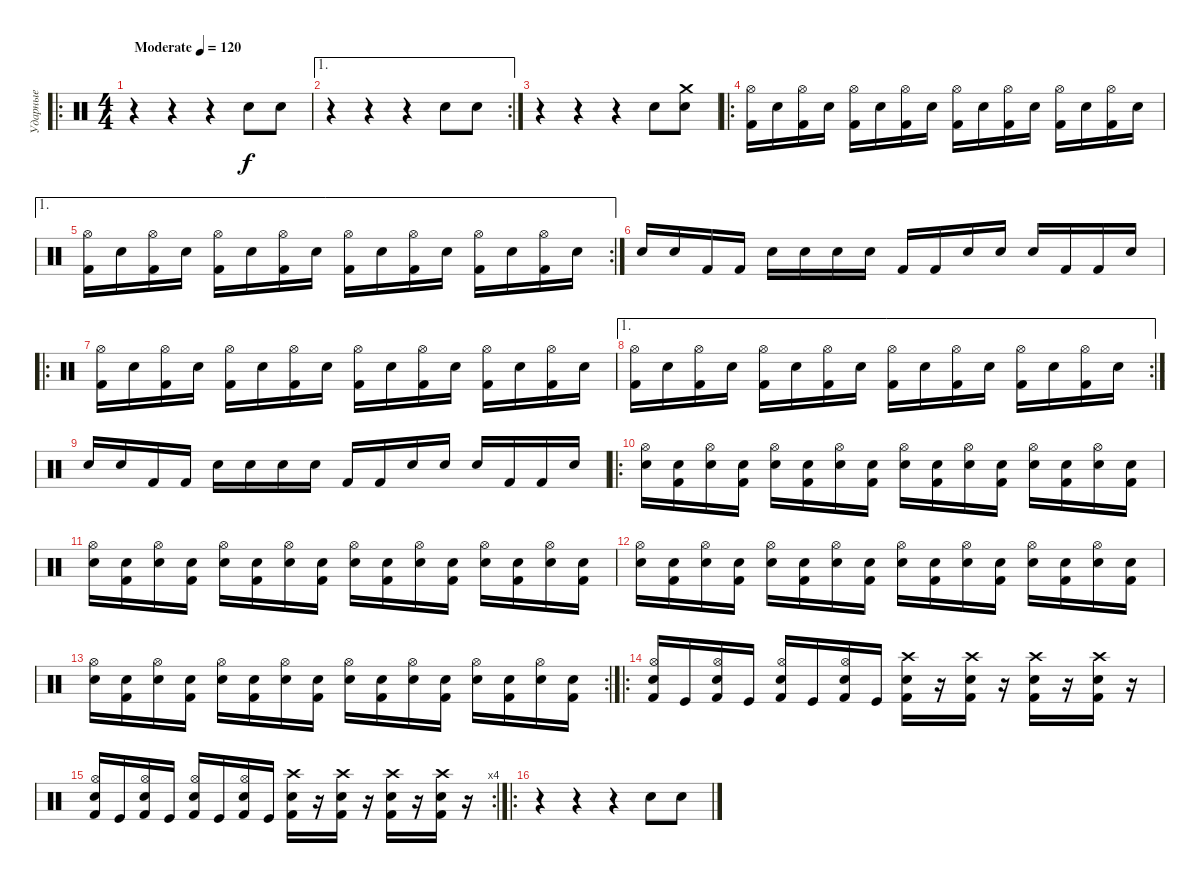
\track ("Ударные" "Ударные") {instrument percussion}
\staff {score}
\articulation defaults
\ro
\ts (4 4)
\tempo (120 "Moderate")
\clef neutral
\ks c
r.4{dy f} r.4 r.4 "Electric Snare (hit)".8 "Electric Snare (hit)".8 |
\ae 1
\rc 2
r.4 r.4 r.4 "Electric Snare (hit)".8 "Electric Snare (hit)".8 |
r.4 r.4 r.4 "Electric Snare (hit)".8 ("Crash medium (hit)" "Electric Snare (hit)").8 |
\ro
("Hi-Hat (open)" "Kick (hit) 2").16 "Electric Snare (hit)".16 ("Hi-Hat (open)" "Kick (hit) 2").16 "Electric Snare (hit)".16 ("Hi-Hat (open)" "Kick (hit) 2").16 "Electric Snare (hit)".16 ("Hi-Hat (open)" "Kick (hit) 2").16 "Electric Snare (hit)".16 ("Hi-Hat (open)" "Kick (hit) 2").16 "Electric Snare (hit)".16 ("Hi-Hat (open)" "Kick (hit) 2").16 "Electric Snare (hit)".16 ("Hi-Hat (open)" "Kick (hit) 2").16 "Electric Snare (hit)".16 ("Hi-Hat (open)" "Kick (hit) 2").16 "Electric Snare (hit)".16 |
\ae 1
\rc 2
("Hi-Hat (open)" "Kick (hit) 2").16 "Electric Snare (hit)".16 ("Hi-Hat (open)" "Kick (hit) 2").16 "Electric Snare (hit)".16 ("Hi-Hat (open)" "Kick (hit) 2").16 "Electric Snare (hit)".16 ("Hi-Hat (open)" "Kick (hit) 2").16 "Electric Snare (hit)".16 ("Hi-Hat (open)" "Kick (hit) 2").16 "Electric Snare (hit)".16 ("Hi-Hat (open)" "Kick (hit) 2").16 "Electric Snare (hit)".16 ("Hi-Hat (open)" "Kick (hit) 2").16 "Electric Snare (hit)".16 ("Hi-Hat (open)" "Kick (hit) 2").16 "Electric Snare (hit)".16 |
"Snare (hit) 2".16 "Snare (hit) 2".16 "Kick (hit) 2".16 "Kick (hit) 2".16 "Snare (hit) 2".16 "Snare (hit) 2".16 "Snare (hit) 2".16 "Snare (hit) 2".16 "Kick (hit) 2".16 "Kick (hit) 2".16 "Snare (hit) 2".16 "Snare (hit) 2".16 "Snare (hit) 2".16 "Kick (hit) 2".16 "Kick (hit) 2".16 "Snare (hit) 2".16 |
\ro
("Hi-Hat (open)" "Kick (hit) 2").16 "Electric Snare (hit)".16 ("Hi-Hat (open)" "Kick (hit) 2").16 "Electric Snare (hit)".16 ("Hi-Hat (open)" "Kick (hit) 2").16 "Electric Snare (hit)".16 ("Hi-Hat (open)" "Kick (hit) 2").16 "Electric Snare (hit)".16 ("Hi-Hat (open)" "Kick (hit) 2").16 "Electric Snare (hit)".16 ("Hi-Hat (open)" "Kick (hit) 2").16 "Electric Snare (hit)".16 ("Hi-Hat (open)" "Kick (hit) 2").16 "Electric Snare (hit)".16 ("Hi-Hat (open)" "Kick (hit) 2").16 "Electric Snare (hit)".16 |
\ae 1
\rc 2
("Hi-Hat (open)" "Kick (hit) 2").16 "Electric Snare (hit)".16 ("Hi-Hat (open)" "Kick (hit) 2").16 "Electric Snare (hit)".16 ("Hi-Hat (open)" "Kick (hit) 2").16 "Electric Snare (hit)".16 ("Hi-Hat (open)" "Kick (hit) 2").16 "Electric Snare (hit)".16 ("Hi-Hat (open)" "Kick (hit) 2").16 "Electric Snare (hit)".16 ("Hi-Hat (open)" "Kick (hit) 2").16 "Electric Snare (hit)".16 ("Hi-Hat (open)" "Kick (hit) 2").16 "Electric Snare (hit)".16 ("Hi-Hat (open)" "Kick (hit) 2").16 "Electric Snare (hit)".16 |
"Snare (hit) 2".16 "Snare (hit) 2".16 "Kick (hit) 2".16 "Kick (hit) 2".16 "Snare (hit) 2".16 "Snare (hit) 2".16 "Snare (hit) 2".16 "Snare (hit) 2".16 "Kick (hit) 2".16 "Kick (hit) 2".16 "Snare (hit) 2".16 "Snare (hit) 2".16 "Snare (hit) 2".16 "Kick (hit) 2".16 "Kick (hit) 2".16 "Snare (hit) 2".16 |
\ro
("Hi-Hat (open)" "Snare (hit) 2").16 ("Electric Snare (hit)" "Kick (hit) 2").16 ("Hi-Hat (open)" "Snare (hit) 2").16 ("Electric Snare (hit)" "Kick (hit) 2").16 ("Hi-Hat (open)" "Snare (hit) 2").16 ("Electric Snare (hit)" "Kick (hit) 2").16 ("Hi-Hat (open)" "Snare (hit) 2").16 ("Electric Snare (hit)" "Kick (hit) 2").16 ("Hi-Hat (open)" "Snare (hit) 2").16 ("Electric Snare (hit)" "Kick (hit) 2").16 ("Hi-Hat (open)" "Snare (hit) 2").16 ("Electric Snare (hit)" "Kick (hit) 2").16 ("Hi-Hat (open)" "Snare (hit) 2").16 ("Electric Snare (hit)" "Kick (hit) 2").16 ("Hi-Hat (open)" "Snare (hit) 2").16 ("Electric Snare (hit)" "Kick (hit) 2").16 |
("Hi-Hat (open)" "Snare (hit) 2").16 ("Electric Snare (hit)" "Kick (hit) 2").16 ("Hi-Hat (open)" "Snare (hit) 2").16 ("Electric Snare (hit)" "Kick (hit) 2").16 ("Hi-Hat (open)" "Snare (hit) 2").16 ("Electric Snare (hit)" "Kick (hit) 2").16 ("Hi-Hat (open)" "Snare (hit) 2").16 ("Electric Snare (hit)" "Kick (hit) 2").16 ("Hi-Hat (open)" "Snare (hit) 2").16 ("Electric Snare (hit)" "Kick (hit) 2").16 ("Hi-Hat (open)" "Snare (hit) 2").16 ("Electric Snare (hit)" "Kick (hit) 2").16 ("Hi-Hat (open)" "Snare (hit) 2").16 ("Electric Snare (hit)" "Kick (hit) 2").16 ("Hi-Hat (open)" "Snare (hit) 2").16 ("Electric Snare (hit)" "Kick (hit) 2").16 |
("Hi-Hat (open)" "Snare (hit) 2").16 ("Electric Snare (hit)" "Kick (hit) 2").16 ("Hi-Hat (open)" "Snare (hit) 2").16 ("Electric Snare (hit)" "Kick (hit) 2").16 ("Hi-Hat (open)" "Snare (hit) 2").16 ("Electric Snare (hit)" "Kick (hit) 2").16 ("Hi-Hat (open)" "Snare (hit) 2").16 ("Electric Snare (hit)" "Kick (hit) 2").16 ("Hi-Hat (open)" "Snare (hit) 2").16 ("Electric Snare (hit)" "Kick (hit) 2").16 ("Hi-Hat (open)" "Snare (hit) 2").16 ("Electric Snare (hit)" "Kick (hit) 2").16 ("Hi-Hat (open)" "Snare (hit) 2").16 ("Electric Snare (hit)" "Kick (hit) 2").16 ("Hi-Hat (open)" "Snare (hit) 2").16 ("Electric Snare (hit)" "Kick (hit) 2").16 |
\rc 2
("Hi-Hat (open)" "Snare (hit) 2").16 ("Electric Snare (hit)" "Kick (hit) 2").16 ("Hi-Hat (open)" "Snare (hit) 2").16 ("Electric Snare (hit)" "Kick (hit) 2").16 ("Hi-Hat (open)" "Snare (hit) 2").16 ("Electric Snare (hit)" "Kick (hit) 2").16 ("Hi-Hat (open)" "Snare (hit) 2").16 ("Electric Snare (hit)" "Kick (hit) 2").16 ("Hi-Hat (open)" "Snare (hit) 2").16 ("Electric Snare (hit)" "Kick (hit) 2").16 ("Hi-Hat (open)" "Snare (hit) 2").16 ("Electric Snare (hit)" "Kick (hit) 2").16 ("Hi-Hat (open)" "Snare (hit) 2").16 ("Electric Snare (hit)" "Kick (hit) 2").16 ("Hi-Hat (open)" "Snare (hit) 2").16 ("Electric Snare (hit)" "Kick (hit) 2").16 |
\ro
("Hi-Hat (open)" "Electric Snare (hit)" "Kick (hit) 2").16 "Kick (hit)".16 ("Hi-Hat (open)" "Electric Snare (hit)" "Kick (hit) 2").16 "Kick (hit)".16 ("Hi-Hat (open)" "Electric Snare (hit)" "Kick (hit) 2").16 "Kick (hit)".16 ("Hi-Hat (open)" "Electric Snare (hit)" "Kick (hit) 2").16 "Kick (hit)".16 ("Crash high (hit)" "Electric Snare (hit)" "Kick (hit) 2").16 r.16 ("Crash high (hit)" "Electric Snare (hit)" "Kick (hit) 2").16 r.16 ("Crash high (hit)" "Electric Snare (hit)" "Kick (hit) 2").16 r.16 ("Crash high (hit)" "Electric Snare (hit)" "Kick (hit) 2").16 r.16 |
\rc 4
("Hi-Hat (open)" "Electric Snare (hit)" "Kick (hit) 2").16 "Kick (hit)".16 ("Hi-Hat (open)" "Electric Snare (hit)" "Kick (hit) 2").16 "Kick (hit)".16 ("Hi-Hat (open)" "Electric Snare (hit)" "Kick (hit) 2").16 "Kick (hit)".16 ("Hi-Hat (open)" "Electric Snare (hit)" "Kick (hit) 2").16 "Kick (hit)".16 ("Crash high (hit)" "Electric Snare (hit)" "Kick (hit) 2").16 r.16 ("Crash high (hit)" "Electric Snare (hit)" "Kick (hit) 2").16 r.16 ("Crash high (hit)" "Electric Snare (hit)" "Kick (hit) 2").16 r.16 ("Crash high (hit)" "Electric Snare (hit)" "Kick (hit) 2").16 r.16 |
\ro
r.4 r.4 r.4 "Electric Snare (hit)".8 "Electric Snare (hit)".8
